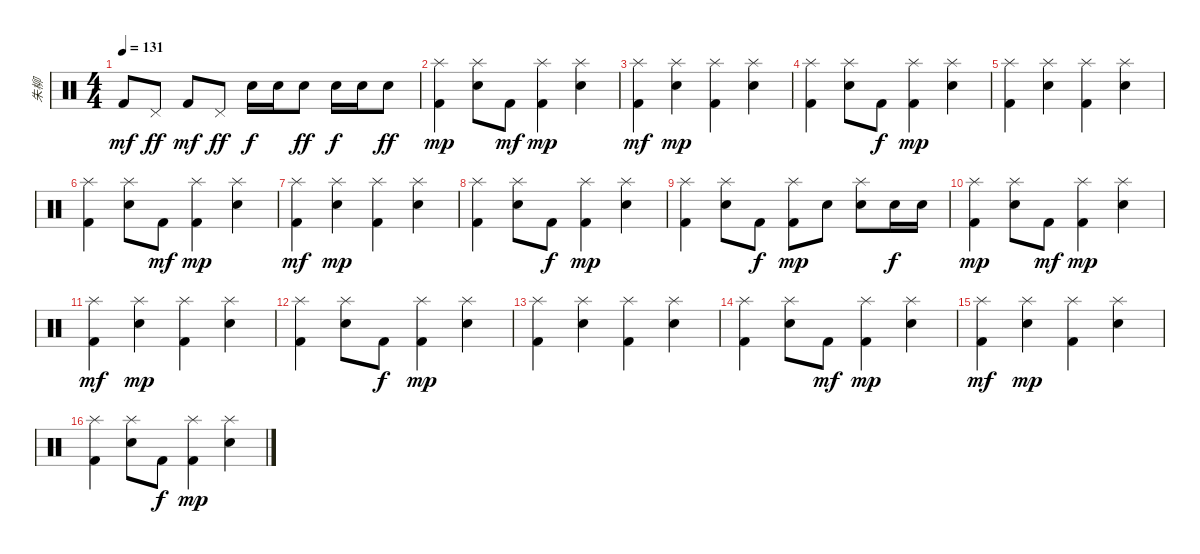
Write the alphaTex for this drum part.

\track ("朱柳" "朱柳") {instrument percussion}
\staff {score}
\articulation defaults
\ts (4 4)
\tempo 131
\clef neutral
\ks c "Kick (hit) 2".8{dy mf} "Pedal Hi-Hat (hit)".8{dy ff} "Kick (hit) 2".8{dy mf} "Pedal Hi-Hat (hit)".8{dy ff} "Electric Snare (hit)".16{dy f} "Electric Snare (hit)".16 "Snare (hit) 2".8{dy ff} "Electric Snare (hit)".16{dy f} "Electric Snare (hit)".16 "Snare (hit) 2".8{dy ff}
|
("Splash (hit)" "Kick (hit) 2").4{dy mp} ("Splash (hit)" "Electric Snare (hit)").8 "Kick (hit) 2".8{dy mf} ("Splash (hit)" "Kick (hit) 2").4{dy mp} ("Splash (hit)" "Electric Snare (hit)").4 |
("Splash (hit)" "Kick (hit) 2").4{dy mf} ("Splash (hit)" "Electric Snare (hit)").4{dy mp} ("Splash (hit)" "Kick (hit) 2").4 ("Splash (hit)" "Electric Snare (hit)").4 |
("Splash (hit)" "Kick (hit) 2").4 ("Splash (hit)" "Electric Snare (hit)").8 "Kick (hit) 2".8{dy f} ("Splash (hit)" "Kick (hit) 2").4{dy mp} ("Splash (hit)" "Electric Snare (hit)").4 |
("Splash (hit)" "Kick (hit) 2").4 ("Splash (hit)" "Electric Snare (hit)").4 ("Splash (hit)" "Kick (hit) 2").4 ("Splash (hit)" "Electric Snare (hit)").4 |
("Splash (hit)" "Kick (hit) 2").4 ("Splash (hit)" "Electric Snare (hit)").8 "Kick (hit) 2".8{dy mf} ("Splash (hit)" "Kick (hit) 2").4{dy mp} ("Splash (hit)" "Electric Snare (hit)").4 |
("Splash (hit)" "Kick (hit) 2").4{dy mf} ("Splash (hit)" "Electric Snare (hit)").4{dy mp} ("Splash (hit)" "Kick (hit) 2").4 ("Splash (hit)" "Electric Snare (hit)").4 |
("Splash (hit)" "Kick (hit) 2").4 ("Splash (hit)" "Electric Snare (hit)").8 "Kick (hit) 2".8{dy f} ("Splash (hit)" "Kick (hit) 2").4{dy mp} ("Splash (hit)" "Electric Snare (hit)").4 |
("Splash (hit)" "Kick (hit) 2").4 ("Splash (hit)" "Electric Snare (hit)").8 "Kick (hit) 2".8{dy f} ("Splash (hit)" "Kick (hit) 2").8{dy mp} "Electric Snare (hit)".8 ("Splash (hit)" "Electric Snare (hit)").8 "Electric Snare (hit)".16{dy f} "Electric Snare (hit)".16 |
("Splash (hit)" "Kick (hit) 2").4{dy mp} ("Splash (hit)" "Electric Snare (hit)").8 "Kick (hit) 2".8{dy mf} ("Splash (hit)" "Kick (hit) 2").4{dy mp} ("Splash (hit)" "Electric Snare (hit)").4 |
("Splash (hit)" "Kick (hit) 2").4{dy mf} ("Splash (hit)" "Electric Snare (hit)").4{dy mp} ("Splash (hit)" "Kick (hit) 2").4 ("Splash (hit)" "Electric Snare (hit)").4 |
("Splash (hit)" "Kick (hit) 2").4 ("Splash (hit)" "Electric Snare (hit)").8 "Kick (hit) 2".8{dy f} ("Splash (hit)" "Kick (hit) 2").4{dy mp} ("Splash (hit)" "Electric Snare (hit)").4 |
("Splash (hit)" "Kick (hit) 2").4 ("Splash (hit)" "Electric Snare (hit)").4 ("Splash (hit)" "Kick (hit) 2").4 ("Splash (hit)" "Electric Snare (hit)").4 |
("Splash (hit)" "Kick (hit) 2").4 ("Splash (hit)" "Electric Snare (hit)").8 "Kick (hit) 2".8{dy mf} ("Splash (hit)" "Kick (hit) 2").4{dy mp} ("Splash (hit)" "Electric Snare (hit)").4 |
("Splash (hit)" "Kick (hit) 2").4{dy mf} ("Splash (hit)" "Electric Snare (hit)").4{dy mp} ("Splash (hit)" "Kick (hit) 2").4 ("Splash (hit)" "Electric Snare (hit)").4 |
("Splash (hit)" "Kick (hit) 2").4 ("Splash (hit)" "Electric Snare (hit)").8 "Kick (hit) 2".8{dy f} ("Splash (hit)" "Kick (hit) 2").4{dy mp} ("Splash (hit)" "Electric Snare (hit)").4
